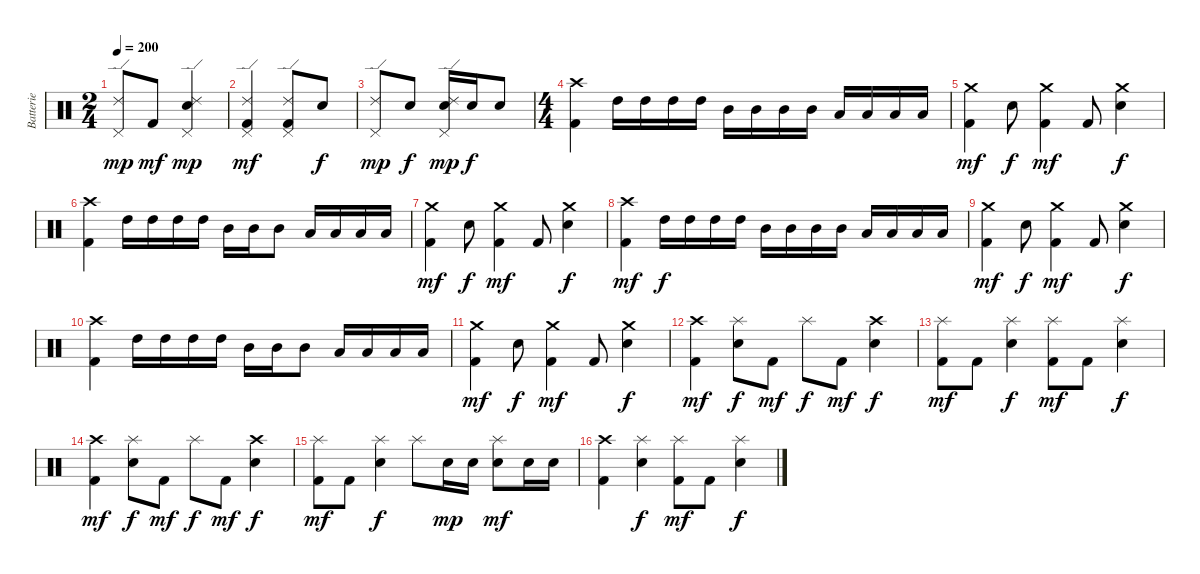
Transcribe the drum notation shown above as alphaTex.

\track ("Batterie" "Batterie") {instrument percussion}
\staff {score}
\articulation defaults
\ts (2 4)
\tempo 200
\clef neutral
\ks c
("Pedal Hi-Hat (hit)" "Ride (edge) 2").8{dy mp} "Kick (hit) 2".8{dy mf} ("Pedal Hi-Hat (hit)" "Ride (edge) 2" "Snare (hit) 2").4{dy mp} |
("Pedal Hi-Hat (hit)" "Ride (edge) 2" "Kick (hit) 2").4{dy mf} ("Pedal Hi-Hat (hit)" "Ride (edge) 2" "Kick (hit) 2").8 "Snare (hit) 2".8{dy f} |
("Pedal Hi-Hat (hit)" "Ride (edge) 2").8{dy mp} "Snare (hit) 2".8{dy f} ("Pedal Hi-Hat (hit)" "Ride (edge) 2" "Snare (hit) 2").16{dy mp} "Snare (hit) 2".16{dy f} "Snare (hit) 2".8 |
\ts (4 4)
("Crash high (hit)" "Kick (hit) 2").4 "High Tom (hit)".16 "High Tom (hit)".16 "High Tom (hit)".16 "High Tom (hit)".16 "Mid Tom (hit)".16 "Mid Tom (hit)".16 "Mid Tom (hit)".16 "Mid Tom (hit)".16 "Low Tom (hit)".16 "Low Tom (hit)".16 "Low Tom (hit)".16 "Low Tom (hit)".16 |
("Crash medium (hit)" "Kick (hit) 2").4{dy mf} "Snare (hit) 2".8{dy f} ("Crash medium (hit)" "Kick (hit) 2").4{dy mf} "Kick (hit) 2".8 ("Crash medium (hit)" "Snare (hit) 2").4{dy f} |
("Crash high (hit)" "Kick (hit) 2").4 "High Tom (hit)".16 "High Tom (hit)".16 "High Tom (hit)".16 "High Tom (hit)".16 "Mid Tom (hit)".16 "Mid Tom (hit)".16 "Mid Tom (hit)".8 "Low Tom (hit)".16 "Low Tom (hit)".16 "Low Tom (hit)".16 "Low Tom (hit)".16 |
("Crash medium (hit)" "Kick (hit) 2").4{dy mf} "Snare (hit) 2".8{dy f} ("Crash medium (hit)" "Kick (hit) 2").4{dy mf} "Kick (hit) 2".8 ("Crash medium (hit)" "Snare (hit) 2").4{dy f} |
("Crash high (hit)" "Kick (hit) 2").4{dy mf} "High Tom (hit)".16{dy f} "High Tom (hit)".16 "High Tom (hit)".16 "High Tom (hit)".16 "Mid Tom (hit)".16 "Mid Tom (hit)".16 "Mid Tom (hit)".16 "Mid Tom (hit)".16 "Low Tom (hit)".16 "Low Tom (hit)".16 "Low Tom (hit)".16 "Low Tom (hit)".16 |
("Crash medium (hit)" "Kick (hit) 2").4{dy mf} "Snare (hit) 2".8{dy f} ("Crash medium (hit)" "Kick (hit) 2").4{dy mf} "Kick (hit) 2".8 ("Crash medium (hit)" "Snare (hit) 2").4{dy f} |
("Crash high (hit)" "Kick (hit) 2").4 "High Tom (hit)".16 "High Tom (hit)".16 "High Tom (hit)".16 "High Tom (hit)".16 "Mid Tom (hit)".16 "Mid Tom (hit)".16 "Mid Tom (hit)".8 "Low Tom (hit)".16 "Low Tom (hit)".16 "Low Tom (hit)".16 "Low Tom (hit)".16 |
("Crash medium (hit)" "Kick (hit) 2").4{dy mf} "Snare (hit) 2".8{dy f} ("Crash medium (hit)" "Kick (hit) 2").4{dy mf} "Kick (hit) 2".8 ("Crash medium (hit)" "Snare (hit) 2").4{dy f} |
("Crash high (hit)" "Kick (hit) 2").4{dy mf} ("Splash (hit)" "Snare (hit) 2").8{dy f} "Kick (hit) 2".8{dy mf} "Splash (hit)".8{dy f} "Kick (hit) 2".8{dy mf} ("Crash high (hit)" "Snare (hit) 2").4{dy f} |
("Splash (hit)" "Kick (hit) 2").8{dy mf} "Kick (hit) 2".8 ("Splash (hit)" "Snare (hit) 2").4{dy f} ("Splash (hit)" "Kick (hit) 2").8{dy mf} "Kick (hit) 2".8 ("Splash (hit)" "Snare (hit) 2").4{dy f} |
("Crash high (hit)" "Kick (hit) 2").4{dy mf} ("Splash (hit)" "Snare (hit) 2").8{dy f} "Kick (hit) 2".8{dy mf} "Splash (hit)".8{dy f} "Kick (hit) 2".8{dy mf} ("Crash high (hit)" "Snare (hit) 2").4{dy f} |
("Splash (hit)" "Kick (hit) 2").8{dy mf} "Kick (hit) 2".8 ("Splash (hit)" "Snare (hit) 2").4{dy f} "Splash (hit)".8 "Snare (hit) 2".16{dy mp} "Snare (hit) 2".16 ("Splash (hit)" "Snare (hit) 2").8{dy mf} "Snare (hit) 2".16 "Snare (hit) 2".16 |
("Crash high (hit)" "Kick (hit) 2").4 ("Splash (hit)" "Snare (hit) 2").4{dy f} ("Splash (hit)" "Kick (hit) 2").8{dy mf} "Kick (hit) 2".8 ("Splash (hit)" "Snare (hit) 2").4{dy f}
